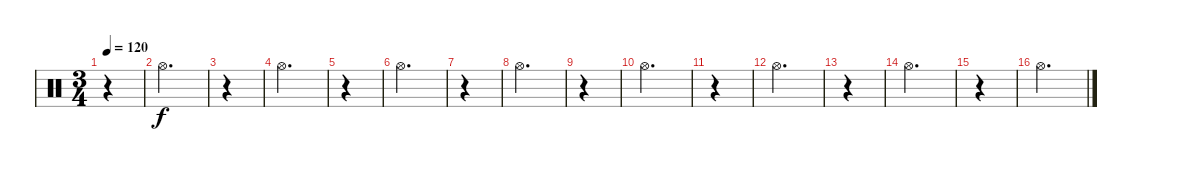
\track "" {instrument percussion}
\staff {score}
\articulation defaults
\ts (3 4)
\tempo 120
\clef neutral
\ks c
r.4{dy f} |
"Hi-Hat (open)".2{d} |
r.4 |
"Hi-Hat (open)".2{d} |
r.4 |
"Hi-Hat (open)".2{d} |
r.4 |
"Hi-Hat (open)".2{d} |
r.4 |
"Hi-Hat (open)".2{d} |
r.4 |
"Hi-Hat (open)".2{d} |
r.4 |
"Hi-Hat (open)".2{d} |
r.4 |
"Hi-Hat (open)".2{d}
